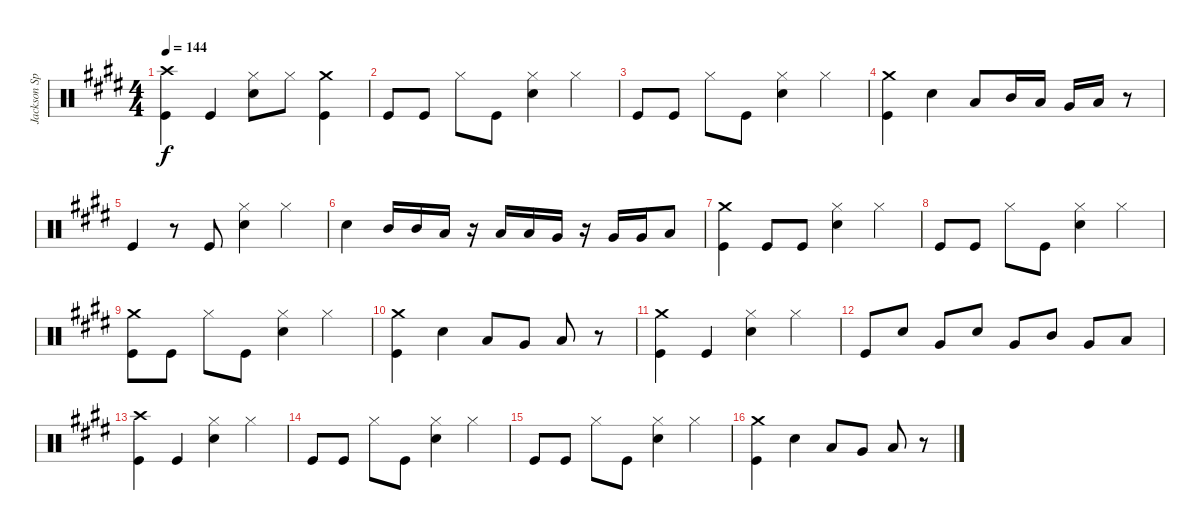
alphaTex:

\track ("Jackson Spiers Drums" "Jackson Sp") {instrument percussion}
\staff {score}
\articulation defaults
\ts (4 4)
\tempo 144
\clef neutral
\ks c#minor
("Crash high (hit)" "Kick (hit)").4{dy f} "Kick (hit)".4 ("Hi-Hat (closed)" "Snare (hit) 2").8 "Hi-Hat (closed)".8 ("Crash medium (hit)" "Kick (hit)").4 |
"Kick (hit)".8 "Kick (hit)".8 "Hi-Hat (closed)".8 "Kick (hit)".8 ("Hi-Hat (closed)" "Snare (hit) 2").4 "Hi-Hat (closed)".4 |
"Kick (hit)".8 "Kick (hit)".8 "Hi-Hat (closed)".8 "Kick (hit)".8 ("Hi-Hat (closed)" "Snare (hit) 2").4 "Hi-Hat (closed)".4 |
("Crash medium (hit)" "Kick (hit)").4 "Snare (hit) 2".4 "Low Tom (hit)".8 "Mid Tom (hit)".16 "Low Tom (hit)".16 "Very Low Tom (hit)".16 "Low Floor Tom (hit)".16 r.8 |
"Kick (hit)".4 r.8 "Kick (hit)".8 ("Hi-Hat (closed)" "Snare (hit) 2").4 "Hi-Hat (closed)".4 |
"Snare (hit) 2".4 "Mid Tom (hit)".16 "Mid Tom (hit)".16 "Low Tom (hit)".16 r.16 "Low Tom (hit)".16 "Low Tom (hit)".16 "Very Low Tom (hit)".16 r.16 "Very Low Tom (hit)".16 "Very Low Tom (hit)".16 "Low Floor Tom (hit)".8 |
("Crash medium (hit)" "Kick (hit)").4 "Kick (hit)".8 "Kick (hit)".8 ("Hi-Hat (closed)" "Snare (hit) 2").4 "Hi-Hat (closed)".4 |
"Kick (hit)".8 "Kick (hit)".8 "Hi-Hat (closed)".8 "Kick (hit)".8 ("Hi-Hat (closed)" "Snare (hit) 2").4 "Hi-Hat (closed)".4 |
("Crash medium (hit)" "Kick (hit)").8 "Kick (hit)".8 "Hi-Hat (closed)".8 "Kick (hit)".8 ("Hi-Hat (closed)" "Snare (hit) 2").4 "Hi-Hat (closed)".4 |
("Crash medium (hit)" "Kick (hit)").4 "Snare (hit) 2".4 "Low Tom (hit)".8 "Very Low Tom (hit)".8 "Low Floor Tom (hit)".8 r.8 |
("Crash medium (hit)" "Kick (hit)").4 "Kick (hit)".4 ("Hi-Hat (closed)" "Snare (hit) 2").4 "Hi-Hat (closed)".4 |
"Kick (hit)".8 "Snare (hit) 2".8 "Very Low Tom (hit)".8 "Snare (hit) 2".8 "Very Low Tom (hit)".8 "Mid Tom (hit)".8 "Very Low Tom (hit)".8 "Low Tom (hit)".8 |
("Crash high (hit)" "Kick (hit)").4 "Kick (hit)".4 ("Hi-Hat (closed)" "Snare (hit) 2").4 "Hi-Hat (closed)".4 |
"Kick (hit)".8 "Kick (hit)".8 "Hi-Hat (closed)".8 "Kick (hit)".8 ("Hi-Hat (closed)" "Snare (hit) 2").4 "Hi-Hat (closed)".4 |
"Kick (hit)".8 "Kick (hit)".8 "Hi-Hat (closed)".8 "Kick (hit)".8 ("Hi-Hat (closed)" "Snare (hit) 2").4 "Hi-Hat (closed)".4 |
("Crash medium (hit)" "Kick (hit)").4 "Snare (hit) 2".4 "Low Tom (hit)".8 "Very Low Tom (hit)".8 "Low Floor Tom (hit)".8 r.8
